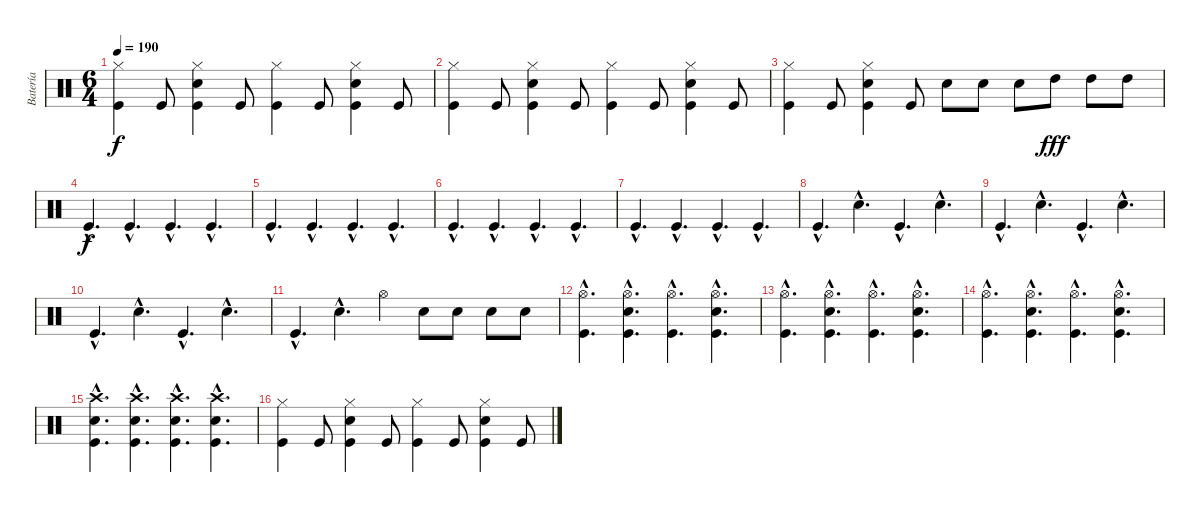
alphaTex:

\track ("Batería" "Batería") {instrument percussion}
\staff {score}
\articulation defaults
\ts (6 4)
\tempo 190
\clef neutral
\ks c
("Hi-Hat (closed)" "Kick (hit)").4{dy f} "Kick (hit)".8 ("Kick (hit)" "Hi-Hat (closed)" "Snare (hit) 2").4 "Kick (hit)".8 ("Hi-Hat (closed)" "Kick (hit)").4 "Kick (hit)".8 ("Kick (hit)" "Hi-Hat (closed)" "Snare (hit) 2").4 "Kick (hit)".8 |
("Hi-Hat (closed)" "Kick (hit)").4 "Kick (hit)".8 ("Kick (hit)" "Hi-Hat (closed)" "Snare (hit) 2").4 "Kick (hit)".8 ("Hi-Hat (closed)" "Kick (hit)").4 "Kick (hit)".8 ("Kick (hit)" "Hi-Hat (closed)" "Snare (hit) 2").4 "Kick (hit)".8 |
("Hi-Hat (closed)" "Kick (hit)").4 "Kick (hit)".8 ("Kick (hit)" "Hi-Hat (closed)" "Snare (hit) 2").4 "Kick (hit)".8 "Snare (hit) 2".8 "Snare (hit) 2".8 "Snare (hit) 2".8 "High Tom (hit)".8{dy fff} "High Tom (hit)".8 "High Tom (hit)".8 |
"Kick (hit)"{hac}.4{d dy f} "Kick (hit)"{hac}.4{d} "Kick (hit)"{hac}.4{d} "Kick (hit)"{hac}.4{d} |
"Kick (hit)"{hac}.4{d} "Kick (hit)"{hac}.4{d} "Kick (hit)"{hac}.4{d} "Kick (hit)"{hac}.4{d} |
"Kick (hit)"{hac}.4{d} "Kick (hit)"{hac}.4{d} "Kick (hit)"{hac}.4{d} "Kick (hit)"{hac}.4{d} |
"Kick (hit)"{hac}.4{d} "Kick (hit)"{hac}.4{d} "Kick (hit)"{hac}.4{d} "Kick (hit)"{hac}.4{d} |
"Kick (hit)"{hac}.4{d} "Snare (hit) 2"{hac}.4{d} "Kick (hit)"{hac}.4{d} "Snare (hit) 2"{hac}.4{d} |
"Kick (hit)"{hac}.4{d} "Snare (hit) 2"{hac}.4{d} "Kick (hit)"{hac}.4{d} "Snare (hit) 2"{hac}.4{d} |
"Kick (hit)"{hac}.4{d} "Snare (hit) 2"{hac}.4{d} "Kick (hit)"{hac}.4{d} "Snare (hit) 2"{hac}.4{d} |
"Kick (hit)"{hac}.4{d} "Snare (hit) 2"{hac}.4{d} "Hi-Hat (open)".4 "Snare (hit) 2".8 "Snare (hit) 2".8 "Snare (hit) 2".8 "Snare (hit) 2".8 |
("Hi-Hat (open)"{hac} "Kick (hit)"{hac}).4{d} ("Kick (hit)"{hac} "Hi-Hat (open)"{hac} "Snare (hit) 2"{hac}).4{d} ("Hi-Hat (open)"{hac} "Kick (hit)"{hac}).4{d} ("Kick (hit)"{hac} "Hi-Hat (open)"{hac} "Snare (hit) 2"{hac}).4{d} |
("Hi-Hat (open)"{hac} "Kick (hit)"{hac}).4{d} ("Kick (hit)"{hac} "Hi-Hat (open)"{hac} "Snare (hit) 2"{hac}).4{d} ("Hi-Hat (open)"{hac} "Kick (hit)"{hac}).4{d} ("Kick (hit)"{hac} "Hi-Hat (open)"{hac} "Snare (hit) 2"{hac}).4{d} |
("Hi-Hat (open)"{hac} "Kick (hit)"{hac}).4{d} ("Kick (hit)"{hac} "Hi-Hat (open)"{hac} "Snare (hit) 2"{hac}).4{d} ("Hi-Hat (open)"{hac} "Kick (hit)"{hac}).4{d} ("Kick (hit)"{hac} "Hi-Hat (open)"{hac} "Snare (hit) 2"{hac}).4{d} |
("Crash high (hit)"{hac} "Kick (hit)"{hac} "Snare (hit) 2"{hac}).4{d} ("Crash high (hit)"{hac} "Kick (hit)"{hac} "Snare (hit) 2"{hac}).4{d} ("Crash high (hit)"{hac} "Kick (hit)"{hac} "Snare (hit) 2"{hac}).4{d} ("Crash high (hit)"{hac} "Kick (hit)"{hac} "Snare (hit) 2"{hac}).4{d} |
("Hi-Hat (closed)" "Kick (hit)").4 "Kick (hit)".8 ("Kick (hit)" "Hi-Hat (closed)" "Snare (hit) 2").4 "Kick (hit)".8 ("Hi-Hat (closed)" "Kick (hit)").4 "Kick (hit)".8 ("Kick (hit)" "Hi-Hat (closed)" "Snare (hit) 2").4 "Kick (hit)".8
